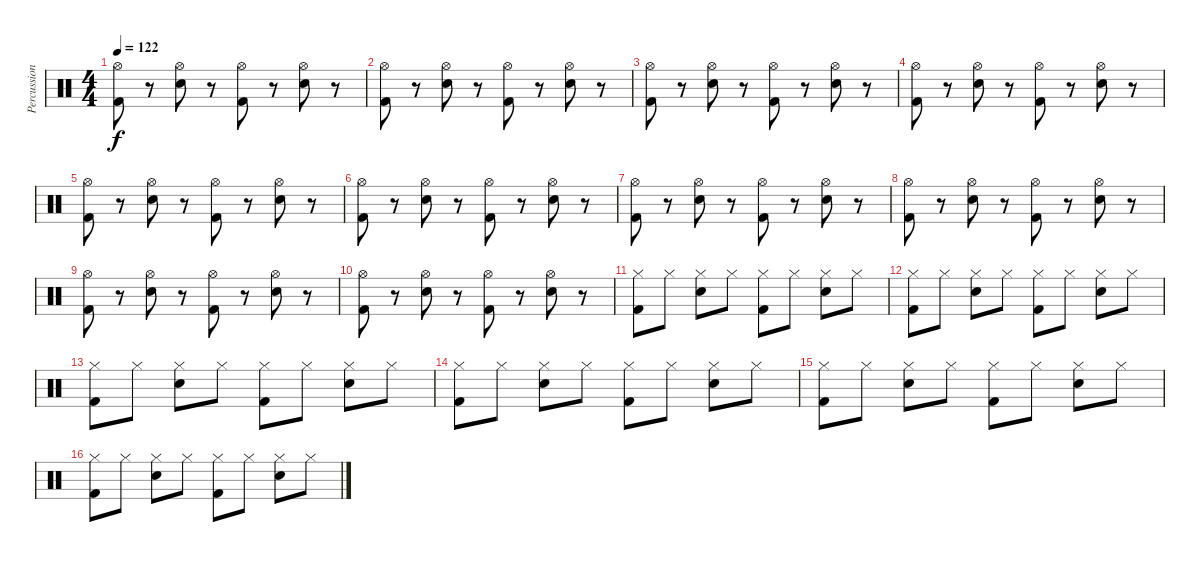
\track ("Percussion" "Percussion") {instrument percussion}
\staff {score}
\articulation defaults
\ts (4 4)
\tempo 122
\clef neutral
\ks c
("Hi-Hat (open)" "Kick (hit) 2").8{dy f} r.8 ("Hi-Hat (open)" "Electric Snare (hit)").8 r.8 ("Hi-Hat (open)" "Kick (hit) 2").8 r.8 ("Hi-Hat (open)" "Electric Snare (hit)").8 r.8 |
("Hi-Hat (open)" "Kick (hit) 2").8 r.8 ("Hi-Hat (open)" "Electric Snare (hit)").8 r.8 ("Hi-Hat (open)" "Kick (hit) 2").8 r.8 ("Hi-Hat (open)" "Electric Snare (hit)").8 r.8 |
("Hi-Hat (open)" "Kick (hit) 2").8 r.8 ("Hi-Hat (open)" "Electric Snare (hit)").8 r.8 ("Hi-Hat (open)" "Kick (hit) 2").8 r.8 ("Hi-Hat (open)" "Electric Snare (hit)").8 r.8 |
("Hi-Hat (open)" "Kick (hit) 2").8 r.8 ("Hi-Hat (open)" "Electric Snare (hit)").8 r.8 ("Hi-Hat (open)" "Kick (hit) 2").8 r.8 ("Hi-Hat (open)" "Electric Snare (hit)").8 r.8 |
("Hi-Hat (open)" "Kick (hit) 2").8 r.8 ("Hi-Hat (open)" "Electric Snare (hit)").8 r.8 ("Hi-Hat (open)" "Kick (hit) 2").8 r.8 ("Hi-Hat (open)" "Electric Snare (hit)").8 r.8 |
("Hi-Hat (open)" "Kick (hit) 2").8 r.8 ("Hi-Hat (open)" "Electric Snare (hit)").8 r.8 ("Hi-Hat (open)" "Kick (hit) 2").8 r.8 ("Hi-Hat (open)" "Electric Snare (hit)").8 r.8 |
("Hi-Hat (open)" "Kick (hit) 2").8 r.8 ("Hi-Hat (open)" "Electric Snare (hit)").8 r.8 ("Hi-Hat (open)" "Kick (hit) 2").8 r.8 ("Hi-Hat (open)" "Electric Snare (hit)").8 r.8 |
("Hi-Hat (open)" "Kick (hit) 2").8 r.8 ("Hi-Hat (open)" "Electric Snare (hit)").8 r.8 ("Hi-Hat (open)" "Kick (hit) 2").8 r.8 ("Hi-Hat (open)" "Electric Snare (hit)").8 r.8 |
("Hi-Hat (open)" "Kick (hit) 2").8 r.8 ("Hi-Hat (open)" "Electric Snare (hit)").8 r.8 ("Hi-Hat (open)" "Kick (hit) 2").8 r.8 ("Hi-Hat (open)" "Electric Snare (hit)").8 r.8 |
("Hi-Hat (open)" "Kick (hit) 2").8 r.8 ("Hi-Hat (open)" "Electric Snare (hit)").8 r.8 ("Hi-Hat (open)" "Kick (hit) 2").8 r.8 ("Hi-Hat (open)" "Electric Snare (hit)").8 r.8 |
("Hi-Hat (closed)" "Kick (hit) 2").8 "Hi-Hat (closed)".8 ("Hi-Hat (closed)" "Electric Snare (hit)").8 "Hi-Hat (closed)".8 ("Hi-Hat (closed)" "Kick (hit) 2").8 "Hi-Hat (closed)".8 ("Hi-Hat (closed)" "Electric Snare (hit)").8 "Hi-Hat (closed)".8 |
("Hi-Hat (closed)" "Kick (hit) 2").8 "Hi-Hat (closed)".8 ("Hi-Hat (closed)" "Electric Snare (hit)").8 "Hi-Hat (closed)".8 ("Hi-Hat (closed)" "Kick (hit) 2").8 "Hi-Hat (closed)".8 ("Hi-Hat (closed)" "Electric Snare (hit)").8 "Hi-Hat (closed)".8 |
("Hi-Hat (closed)" "Kick (hit) 2").8 "Hi-Hat (closed)".8 ("Hi-Hat (closed)" "Electric Snare (hit)").8 "Hi-Hat (closed)".8 ("Hi-Hat (closed)" "Kick (hit) 2").8 "Hi-Hat (closed)".8 ("Hi-Hat (closed)" "Electric Snare (hit)").8 "Hi-Hat (closed)".8 |
("Hi-Hat (closed)" "Kick (hit) 2").8 "Hi-Hat (closed)".8 ("Hi-Hat (closed)" "Electric Snare (hit)").8 "Hi-Hat (closed)".8 ("Hi-Hat (closed)" "Kick (hit) 2").8 "Hi-Hat (closed)".8 ("Hi-Hat (closed)" "Electric Snare (hit)").8 "Hi-Hat (closed)".8 |
("Hi-Hat (closed)" "Kick (hit) 2").8 "Hi-Hat (closed)".8 ("Hi-Hat (closed)" "Electric Snare (hit)").8 "Hi-Hat (closed)".8 ("Hi-Hat (closed)" "Kick (hit) 2").8 "Hi-Hat (closed)".8 ("Hi-Hat (closed)" "Electric Snare (hit)").8 "Hi-Hat (closed)".8 |
("Hi-Hat (closed)" "Kick (hit) 2").8 "Hi-Hat (closed)".8 ("Hi-Hat (closed)" "Electric Snare (hit)").8 "Hi-Hat (closed)".8 ("Hi-Hat (closed)" "Kick (hit) 2").8 "Hi-Hat (closed)".8 ("Hi-Hat (closed)" "Electric Snare (hit)").8 "Hi-Hat (closed)".8
